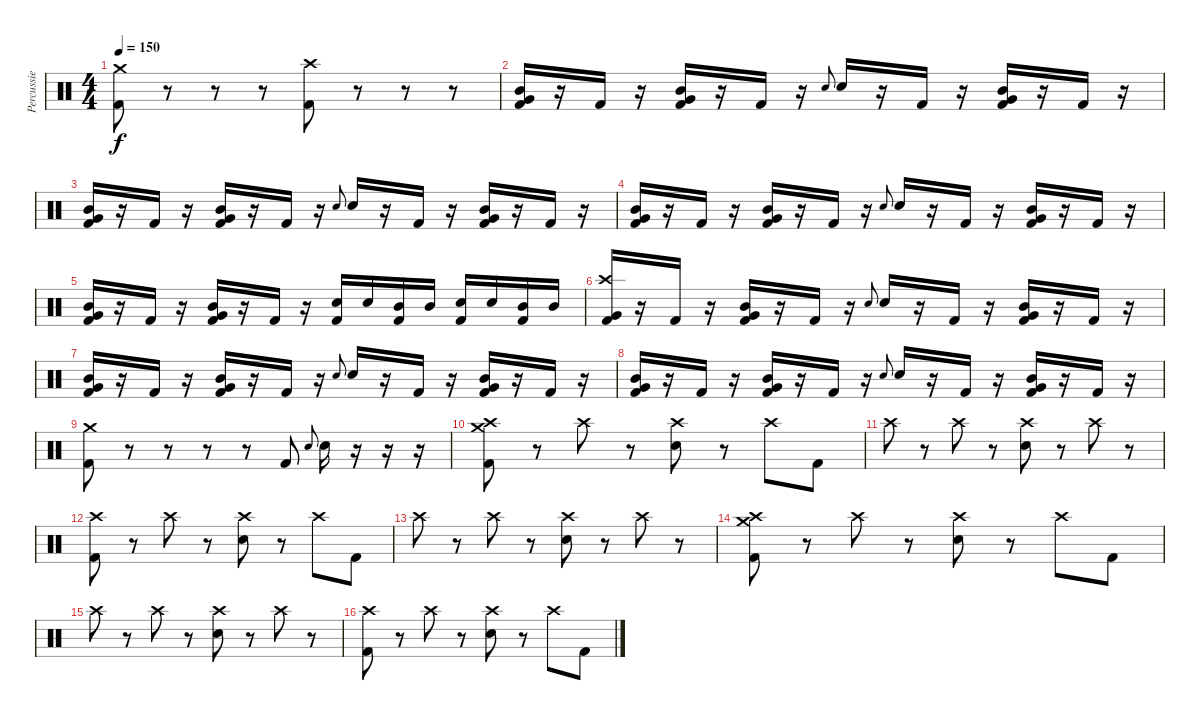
\track ("Percussie" "Percussie") {instrument percussion}
\staff {score}
\articulation defaults
\ts (4 4)
\tempo 150
\clef neutral
\ks c
("Crash medium (hit)" "Kick (hit) 2").8{dy f} r.8 r.8 r.8 ("Crash high (hit)" "Kick (hit) 2").8 r.8 r.8 r.8 |
("Very Low Tom (hit)" "Mid Tom (hit)" "Kick (hit) 2").16 r.16 "Kick (hit) 2".16 r.16 ("Very Low Tom (hit)" "Mid Tom (hit)" "Kick (hit) 2").16 r.16 "Kick (hit) 2".16 r.16 "Electric Snare (hit)".8{gr onbeat} "Electric Snare (hit)".16 r.16 "Kick (hit) 2".16 r.16 ("Mid Tom (hit)" "Very Low Tom (hit)" "Kick (hit) 2").16 r.16 "Kick (hit) 2".16 r.16 |
("Very Low Tom (hit)" "Mid Tom (hit)" "Kick (hit) 2").16 r.16 "Kick (hit) 2".16 r.16 ("Very Low Tom (hit)" "Mid Tom (hit)" "Kick (hit) 2").16 r.16 "Kick (hit) 2".16 r.16 "Electric Snare (hit)".8{gr onbeat} "Electric Snare (hit)".16 r.16 "Kick (hit) 2".16 r.16 ("Mid Tom (hit)" "Very Low Tom (hit)" "Kick (hit) 2").16 r.16 "Kick (hit) 2".16 r.16 |
("Very Low Tom (hit)" "Mid Tom (hit)" "Kick (hit) 2").16 r.16 "Kick (hit) 2".16 r.16 ("Very Low Tom (hit)" "Mid Tom (hit)" "Kick (hit) 2").16 r.16 "Kick (hit) 2".16 r.16 "Electric Snare (hit)".8{gr onbeat} "Electric Snare (hit)".16 r.16 "Kick (hit) 2".16 r.16 ("Mid Tom (hit)" "Very Low Tom (hit)" "Kick (hit) 2").16 r.16 "Kick (hit) 2".16 r.16 |
("Very Low Tom (hit)" "Mid Tom (hit)" "Kick (hit) 2").16 r.16 "Kick (hit) 2".16 r.16 ("Very Low Tom (hit)" "Mid Tom (hit)" "Kick (hit) 2").16 r.16 "Kick (hit) 2".16 r.16 ("Electric Snare (hit)" "Kick (hit) 2").16 "Electric Snare (hit)".16 ("Mid Tom (hit)" "Kick (hit) 2").16 "Mid Tom (hit)".16 ("Electric Snare (hit)" "Kick (hit) 2").16 "Electric Snare (hit)".16 ("Mid Tom (hit)" "Kick (hit) 2").16 "Mid Tom (hit)".16 |
("Crash high (hit)" "Very Low Tom (hit)" "Kick (hit) 2").16 r.16 "Kick (hit) 2".16 r.16 ("Very Low Tom (hit)" "Mid Tom (hit)" "Kick (hit) 2").16 r.16 "Kick (hit) 2".16 r.16 "Electric Snare (hit)".8{gr onbeat} "Electric Snare (hit)".16 r.16 "Kick (hit) 2".16 r.16 ("Mid Tom (hit)" "Very Low Tom (hit)" "Kick (hit) 2").16 r.16 "Kick (hit) 2".16 r.16 |
("Very Low Tom (hit)" "Mid Tom (hit)" "Kick (hit) 2").16 r.16 "Kick (hit) 2".16 r.16 ("Very Low Tom (hit)" "Mid Tom (hit)" "Kick (hit) 2").16 r.16 "Kick (hit) 2".16 r.16 "Electric Snare (hit)".8{gr onbeat} "Electric Snare (hit)".16 r.16 "Kick (hit) 2".16 r.16 ("Mid Tom (hit)" "Very Low Tom (hit)" "Kick (hit) 2").16 r.16 "Kick (hit) 2".16 r.16 |
("Very Low Tom (hit)" "Mid Tom (hit)" "Kick (hit) 2").16 r.16 "Kick (hit) 2".16 r.16 ("Very Low Tom (hit)" "Mid Tom (hit)" "Kick (hit) 2").16 r.16 "Kick (hit) 2".16 r.16 "Electric Snare (hit)".8{gr onbeat} "Electric Snare (hit)".16 r.16 "Kick (hit) 2".16 r.16 ("Mid Tom (hit)" "Very Low Tom (hit)" "Kick (hit) 2").16 r.16 "Kick (hit) 2".16 r.16 |
("Crash medium (hit)" "Kick (hit) 2").8 r.8 r.8 r.8 r.8 "Kick (hit) 2".8 "Electric Snare (hit)".8{gr onbeat} "Electric Snare (hit)".16 r.16 r.16 r.16 |
("Crash high (hit)" "Crash medium (hit)" "Kick (hit) 2").8 r.8 "Crash high (hit)".8 r.8 ("Crash high (hit)" "Electric Snare (hit)").8 r.8 "Crash high (hit)".8 "Kick (hit) 2".8 |
"Crash high (hit)".8 r.8 "Crash high (hit)".8 r.8 ("Crash high (hit)" "Electric Snare (hit)").8 r.8 "Crash high (hit)".8 r.8 |
("Crash high (hit)" "Kick (hit) 2").8 r.8 "Crash high (hit)".8 r.8 ("Crash high (hit)" "Electric Snare (hit)").8 r.8 "Crash high (hit)".8 "Kick (hit) 2".8 |
"Crash high (hit)".8 r.8 "Crash high (hit)".8 r.8 ("Crash high (hit)" "Electric Snare (hit)").8 r.8 "Crash high (hit)".8 r.8 |
("Crash high (hit)" "Crash medium (hit)" "Kick (hit) 2").8 r.8 "Crash high (hit)".8 r.8 ("Crash high (hit)" "Electric Snare (hit)").8 r.8 "Crash high (hit)".8 "Kick (hit) 2".8 |
"Crash high (hit)".8 r.8 "Crash high (hit)".8 r.8 ("Crash high (hit)" "Electric Snare (hit)").8 r.8 "Crash high (hit)".8 r.8 |
("Crash high (hit)" "Kick (hit) 2").8 r.8 "Crash high (hit)".8 r.8 ("Crash high (hit)" "Electric Snare (hit)").8 r.8 "Crash high (hit)".8 "Kick (hit) 2".8
